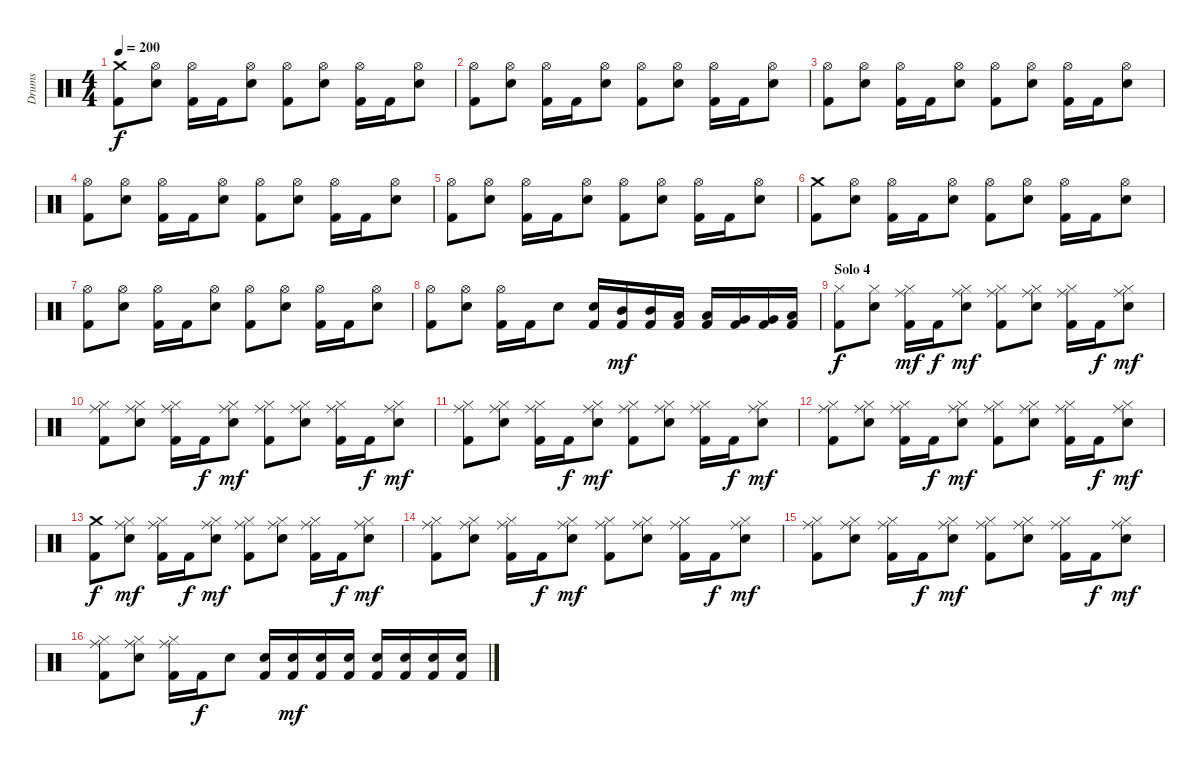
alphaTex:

\track ("Drums" "Drums") {instrument percussion}
\staff {score}
\articulation defaults
\ts (4 4)
\tempo 200
\clef neutral
\ks c
("Crash medium (hit)" "Kick (hit) 2").8{dy f} ("Hi-Hat (open)" "Snare (hit) 2").8 ("Hi-Hat (open)" "Kick (hit) 2").16 "Kick (hit) 2".16 ("Hi-Hat (open)" "Snare (hit) 2").8 ("Hi-Hat (open)" "Kick (hit) 2").8 ("Hi-Hat (open)" "Snare (hit) 2").8 ("Hi-Hat (open)" "Kick (hit) 2").16 "Kick (hit) 2".16 ("Hi-Hat (open)" "Snare (hit) 2").8 |
("Hi-Hat (open)" "Kick (hit) 2").8 ("Hi-Hat (open)" "Snare (hit) 2").8 ("Hi-Hat (open)" "Kick (hit) 2").16 "Kick (hit) 2".16 ("Hi-Hat (open)" "Snare (hit) 2").8 ("Hi-Hat (open)" "Kick (hit) 2").8 ("Hi-Hat (open)" "Snare (hit) 2").8 ("Hi-Hat (open)" "Kick (hit) 2").16 "Kick (hit) 2".16 ("Hi-Hat (open)" "Snare (hit) 2").8 |
("Hi-Hat (open)" "Kick (hit) 2").8 ("Hi-Hat (open)" "Snare (hit) 2").8 ("Hi-Hat (open)" "Kick (hit) 2").16 "Kick (hit) 2".16 ("Hi-Hat (open)" "Snare (hit) 2").8 ("Hi-Hat (open)" "Kick (hit) 2").8 ("Hi-Hat (open)" "Snare (hit) 2").8 ("Hi-Hat (open)" "Kick (hit) 2").16 "Kick (hit) 2".16 ("Hi-Hat (open)" "Snare (hit) 2").8 |
("Hi-Hat (open)" "Kick (hit) 2").8 ("Hi-Hat (open)" "Snare (hit) 2").8 ("Hi-Hat (open)" "Kick (hit) 2").16 "Kick (hit) 2".16 ("Hi-Hat (open)" "Snare (hit) 2").8 ("Hi-Hat (open)" "Kick (hit) 2").8 ("Hi-Hat (open)" "Snare (hit) 2").8 ("Hi-Hat (open)" "Kick (hit) 2").16 "Kick (hit) 2".16 ("Hi-Hat (open)" "Snare (hit) 2").8 |
("Hi-Hat (open)" "Kick (hit) 2").8 ("Hi-Hat (open)" "Snare (hit) 2").8 ("Hi-Hat (open)" "Kick (hit) 2").16 "Kick (hit) 2".16 ("Hi-Hat (open)" "Snare (hit) 2").8 ("Hi-Hat (open)" "Kick (hit) 2").8 ("Hi-Hat (open)" "Snare (hit) 2").8 ("Hi-Hat (open)" "Kick (hit) 2").16 "Kick (hit) 2".16 ("Hi-Hat (open)" "Snare (hit) 2").8 |
("Crash medium (hit)" "Kick (hit) 2").8 ("Hi-Hat (open)" "Snare (hit) 2").8 ("Hi-Hat (open)" "Kick (hit) 2").16 "Kick (hit) 2".16 ("Hi-Hat (open)" "Snare (hit) 2").8 ("Hi-Hat (open)" "Kick (hit) 2").8 ("Hi-Hat (open)" "Snare (hit) 2").8 ("Hi-Hat (open)" "Kick (hit) 2").16 "Kick (hit) 2".16 ("Hi-Hat (open)" "Snare (hit) 2").8 |
("Hi-Hat (open)" "Kick (hit) 2").8 ("Hi-Hat (open)" "Snare (hit) 2").8 ("Hi-Hat (open)" "Kick (hit) 2").16 "Kick (hit) 2".16 ("Hi-Hat (open)" "Snare (hit) 2").8 ("Hi-Hat (open)" "Kick (hit) 2").8 ("Hi-Hat (open)" "Snare (hit) 2").8 ("Hi-Hat (open)" "Kick (hit) 2").16 "Kick (hit) 2".16 ("Hi-Hat (open)" "Snare (hit) 2").8 |
("Hi-Hat (open)" "Kick (hit) 2").8 ("Hi-Hat (open)" "Snare (hit) 2").8 ("Hi-Hat (open)" "Kick (hit) 2").16 "Kick (hit) 2".16 "Snare (hit) 2".8 ("Snare (hit) 2" "Kick (hit) 2").16 ("Mid Tom (hit)" "Kick (hit) 2").16{dy mf} ("Mid Tom (hit)" "Kick (hit) 2").16 ("Low Tom (hit)" "Kick (hit) 2").16 ("Low Tom (hit)" "Kick (hit) 2").16 ("Very Low Tom (hit)" "Kick (hit) 2").16 ("Very Low Tom (hit)" "Kick (hit) 2").16 ("Low Floor Tom (hit)" "Kick (hit) 2").16 |
\section ("" "Solo 4")
("Hi-Hat (closed)" "Kick (hit) 2").8{dy f} ("Hi-Hat (closed)" "Snare (hit) 2").8 ("Hi-Hat (closed)" "Ride (middle)" "Kick (hit) 2").16{dy mf} "Kick (hit) 2".16{dy f} ("Hi-Hat (closed)" "Ride (middle)" "Snare (hit) 2").8{dy mf} ("Hi-Hat (closed)" "Ride (middle)" "Kick (hit) 2").8 ("Hi-Hat (closed)" "Ride (middle)" "Snare (hit) 2").8 ("Hi-Hat (closed)" "Ride (middle)" "Kick (hit) 2").16 "Kick (hit) 2".16{dy f} ("Hi-Hat (closed)" "Ride (middle)" "Snare (hit) 2").8{dy mf} |
("Hi-Hat (closed)" "Ride (middle)" "Kick (hit) 2").8 ("Hi-Hat (closed)" "Ride (middle)" "Snare (hit) 2").8 ("Hi-Hat (closed)" "Ride (middle)" "Kick (hit) 2").16 "Kick (hit) 2".16{dy f} ("Hi-Hat (closed)" "Ride (middle)" "Snare (hit) 2").8{dy mf} ("Hi-Hat (closed)" "Ride (middle)" "Kick (hit) 2").8 ("Hi-Hat (closed)" "Ride (middle)" "Snare (hit) 2").8 ("Hi-Hat (closed)" "Ride (middle)" "Kick (hit) 2").16 "Kick (hit) 2".16{dy f} ("Hi-Hat (closed)" "Ride (middle)" "Snare (hit) 2").8{dy mf} |
("Hi-Hat (closed)" "Ride (middle)" "Kick (hit) 2").8 ("Hi-Hat (closed)" "Ride (middle)" "Snare (hit) 2").8 ("Hi-Hat (closed)" "Ride (middle)" "Kick (hit) 2").16 "Kick (hit) 2".16{dy f} ("Hi-Hat (closed)" "Ride (middle)" "Snare (hit) 2").8{dy mf} ("Hi-Hat (closed)" "Ride (middle)" "Kick (hit) 2").8 ("Hi-Hat (closed)" "Ride (middle)" "Snare (hit) 2").8 ("Hi-Hat (closed)" "Ride (middle)" "Kick (hit) 2").16 "Kick (hit) 2".16{dy f} ("Hi-Hat (closed)" "Ride (middle)" "Snare (hit) 2").8{dy mf} |
("Hi-Hat (closed)" "Ride (middle)" "Kick (hit) 2").8 ("Hi-Hat (closed)" "Ride (middle)" "Snare (hit) 2").8 ("Hi-Hat (closed)" "Ride (middle)" "Kick (hit) 2").16 "Kick (hit) 2".16{dy f} ("Hi-Hat (closed)" "Ride (middle)" "Snare (hit) 2").8{dy mf} ("Hi-Hat (closed)" "Ride (middle)" "Kick (hit) 2").8 ("Hi-Hat (closed)" "Ride (middle)" "Snare (hit) 2").8 ("Hi-Hat (closed)" "Ride (middle)" "Kick (hit) 2").16 "Kick (hit) 2".16{dy f} ("Hi-Hat (closed)" "Ride (middle)" "Snare (hit) 2").8{dy mf} |
("Crash medium (hit)" "Kick (hit) 2").8{dy f} ("Hi-Hat (closed)" "Ride (middle)" "Snare (hit) 2").8{dy mf} ("Hi-Hat (closed)" "Ride (middle)" "Kick (hit) 2").16 "Kick (hit) 2".16{dy f} ("Hi-Hat (closed)" "Ride (middle)" "Snare (hit) 2").8{dy mf} ("Hi-Hat (closed)" "Ride (middle)" "Kick (hit) 2").8 ("Hi-Hat (closed)" "Ride (middle)" "Snare (hit) 2").8 ("Hi-Hat (closed)" "Ride (middle)" "Kick (hit) 2").16 "Kick (hit) 2".16{dy f} ("Hi-Hat (closed)" "Ride (middle)" "Snare (hit) 2").8{dy mf} |
("Hi-Hat (closed)" "Ride (middle)" "Kick (hit) 2").8 ("Hi-Hat (closed)" "Ride (middle)" "Snare (hit) 2").8 ("Hi-Hat (closed)" "Ride (middle)" "Kick (hit) 2").16 "Kick (hit) 2".16{dy f} ("Hi-Hat (closed)" "Ride (middle)" "Snare (hit) 2").8{dy mf} ("Hi-Hat (closed)" "Ride (middle)" "Kick (hit) 2").8 ("Hi-Hat (closed)" "Ride (middle)" "Snare (hit) 2").8 ("Hi-Hat (closed)" "Ride (middle)" "Kick (hit) 2").16 "Kick (hit) 2".16{dy f} ("Hi-Hat (closed)" "Ride (middle)" "Snare (hit) 2").8{dy mf} |
("Hi-Hat (closed)" "Ride (middle)" "Kick (hit) 2").8 ("Hi-Hat (closed)" "Ride (middle)" "Snare (hit) 2").8 ("Hi-Hat (closed)" "Ride (middle)" "Kick (hit) 2").16 "Kick (hit) 2".16{dy f} ("Hi-Hat (closed)" "Ride (middle)" "Snare (hit) 2").8{dy mf} ("Hi-Hat (closed)" "Ride (middle)" "Kick (hit) 2").8 ("Hi-Hat (closed)" "Ride (middle)" "Snare (hit) 2").8 ("Hi-Hat (closed)" "Ride (middle)" "Kick (hit) 2").16 "Kick (hit) 2".16{dy f} ("Hi-Hat (closed)" "Ride (middle)" "Snare (hit) 2").8{dy mf} |
("Hi-Hat (closed)" "Ride (middle)" "Kick (hit) 2").8 ("Hi-Hat (closed)" "Ride (middle)" "Snare (hit) 2").8 ("Hi-Hat (closed)" "Ride (middle)" "Kick (hit) 2").16 "Kick (hit) 2".16{dy f} "Snare (hit) 2".8 ("Snare (hit) 2" "Kick (hit) 2").16 ("Snare (hit) 2" "Kick (hit) 2").16{dy mf} ("Snare (hit) 2" "Kick (hit) 2").16 ("Snare (hit) 2" "Kick (hit) 2").16 ("Snare (hit) 2" "Kick (hit) 2").16 ("Snare (hit) 2" "Kick (hit) 2").16 ("Snare (hit) 2" "Kick (hit) 2").16 ("Snare (hit) 2" "Kick (hit) 2").16
